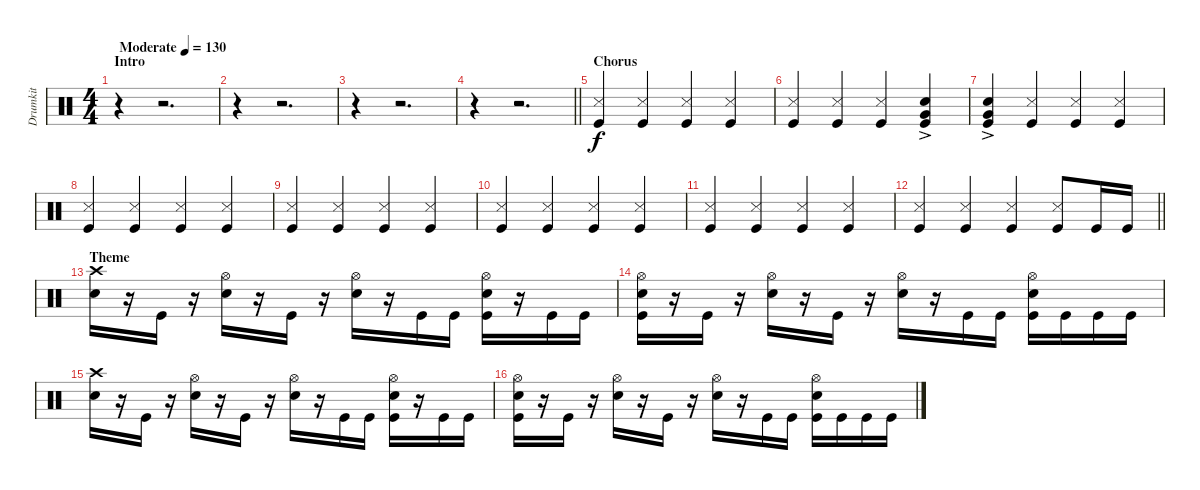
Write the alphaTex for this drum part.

\track ("Drumkit" "Drumkit") {instrument percussion}
\staff {score}
\articulation defaults
\ts (4 4)
\section ("" "Intro")
\tempo (130 "Moderate")
\clef neutral
\ks c
r.4{dy f} r.2{d} |
r.4 r.2{d} |
r.4 r.2{d} |
\barLineRight lightlight
r.4 r.2{d} |
\section ("" "Chorus")
("Snare (side stick) 3" "Kick (hit)").4 ("Snare (side stick) 3" "Kick (hit)").4 ("Snare (side stick) 3" "Kick (hit)").4 ("Snare (side stick) 3" "Kick (hit)").4 |
("Snare (side stick) 3" "Kick (hit)").4 ("Snare (side stick) 3" "Kick (hit)").4 ("Snare (side stick) 3" "Kick (hit)").4 ("Very Low Tom (hit)"{ac} "Snare (hit) 2" "Kick (hit)").4 |
("Very Low Tom (hit)"{ac} "Snare (hit) 2" "Kick (hit)").4 ("Snare (side stick) 3" "Kick (hit)").4 ("Snare (side stick) 3" "Kick (hit)").4 ("Snare (side stick) 3" "Kick (hit)").4 |
("Snare (side stick) 3" "Kick (hit)").4 ("Snare (side stick) 3" "Kick (hit)").4 ("Snare (side stick) 3" "Kick (hit)").4 ("Snare (side stick) 3" "Kick (hit)").4 |
("Snare (side stick) 3" "Kick (hit)").4 ("Snare (side stick) 3" "Kick (hit)").4 ("Snare (side stick) 3" "Kick (hit)").4 ("Snare (side stick) 3" "Kick (hit)").4 |
("Snare (side stick) 3" "Kick (hit)").4 ("Snare (side stick) 3" "Kick (hit)").4 ("Snare (side stick) 3" "Kick (hit)").4 ("Snare (side stick) 3" "Kick (hit)").4 |
("Snare (side stick) 3" "Kick (hit)").4 ("Snare (side stick) 3" "Kick (hit)").4 ("Snare (side stick) 3" "Kick (hit)").4 ("Snare (side stick) 3" "Kick (hit)").4 |
\barLineRight lightlight
("Snare (side stick) 3" "Kick (hit)").4 ("Snare (side stick) 3" "Kick (hit)").4 ("Snare (side stick) 3" "Kick (hit)").4 ("Snare (side stick) 3" "Kick (hit)").8 "Kick (hit)".16 "Kick (hit)".16 |
\section ("" "Theme")
("Crash high (hit)" "Snare (hit) 2").16 r.16 "Kick (hit)".16 r.16 ("Hi-Hat (open)" "Snare (hit) 2").16 r.16 "Kick (hit)".16 r.16 ("Hi-Hat (open)" "Snare (hit) 2").16 r.16 "Kick (hit)".16 "Kick (hit)".16 ("Hi-Hat (open)" "Snare (hit) 2" "Kick (hit)").16 r.16 "Kick (hit)".16 "Kick (hit)".16 |
("Hi-Hat (open)" "Snare (hit) 2" "Kick (hit)").16 r.16 "Kick (hit)".16 r.16 ("Hi-Hat (open)" "Snare (hit) 2").16 r.16 "Kick (hit)".16 r.16 ("Hi-Hat (open)" "Snare (hit) 2").16 r.16 "Kick (hit)".16 "Kick (hit)".16 ("Hi-Hat (open)" "Snare (hit) 2" "Kick (hit)").16 "Kick (hit)".16 "Kick (hit)".16 "Kick (hit)".16 |
("Crash high (hit)" "Snare (hit) 2").16 r.16 "Kick (hit)".16 r.16 ("Hi-Hat (open)" "Snare (hit) 2").16 r.16 "Kick (hit)".16 r.16 ("Hi-Hat (open)" "Snare (hit) 2").16 r.16 "Kick (hit)".16 "Kick (hit)".16 ("Hi-Hat (open)" "Snare (hit) 2" "Kick (hit)").16 r.16 "Kick (hit)".16 "Kick (hit)".16 |
("Hi-Hat (open)" "Snare (hit) 2" "Kick (hit)").16 r.16 "Kick (hit)".16 r.16 ("Hi-Hat (open)" "Snare (hit) 2").16 r.16 "Kick (hit)".16 r.16 ("Hi-Hat (open)" "Snare (hit) 2").16 r.16 "Kick (hit)".16 "Kick (hit)".16 ("Hi-Hat (open)" "Snare (hit) 2" "Kick (hit)").16 "Kick (hit)".16 "Kick (hit)".16 "Kick (hit)".16
